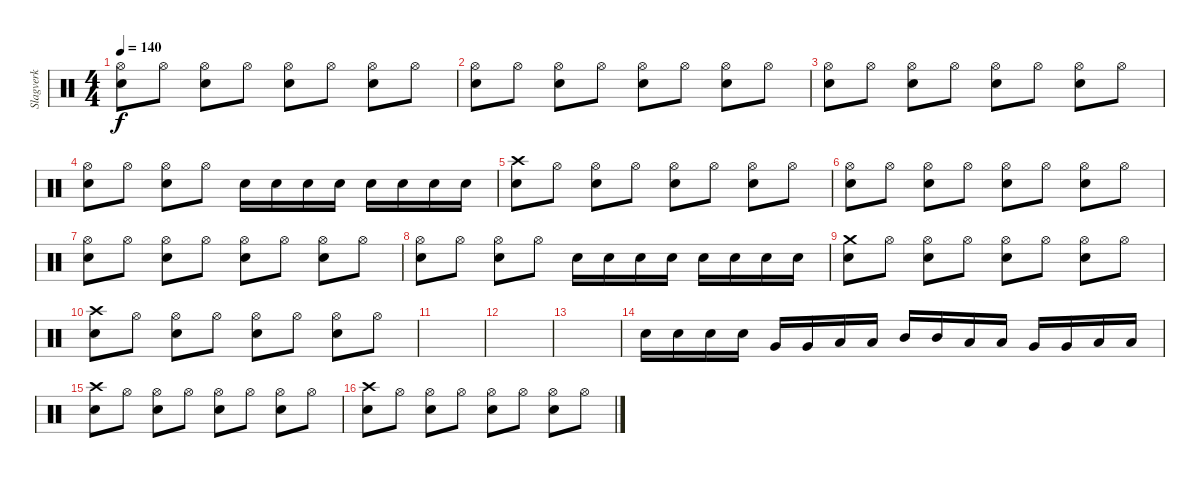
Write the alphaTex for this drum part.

\track ("Slagverk" "Slagverk") {instrument percussion}
\staff {score}
\articulation defaults
\ts (4 4)
\tempo 140
\clef neutral
\ks c
("Hi-Hat (open)" "Snare (hit) 2").8{dy f} "Hi-Hat (open)".8 ("Hi-Hat (open)" "Snare (hit) 2").8 "Hi-Hat (open)".8 ("Hi-Hat (open)" "Snare (hit) 2").8 "Hi-Hat (open)".8 ("Hi-Hat (open)" "Snare (hit) 2").8 "Hi-Hat (open)".8 |
("Hi-Hat (open)" "Snare (hit) 2").8 "Hi-Hat (open)".8 ("Hi-Hat (open)" "Snare (hit) 2").8 "Hi-Hat (open)".8 ("Hi-Hat (open)" "Snare (hit) 2").8 "Hi-Hat (open)".8 ("Hi-Hat (open)" "Snare (hit) 2").8 "Hi-Hat (open)".8 |
("Hi-Hat (open)" "Snare (hit) 2").8 "Hi-Hat (open)".8 ("Hi-Hat (open)" "Snare (hit) 2").8 "Hi-Hat (open)".8 ("Hi-Hat (open)" "Snare (hit) 2").8 "Hi-Hat (open)".8 ("Hi-Hat (open)" "Snare (hit) 2").8 "Hi-Hat (open)".8 |
("Hi-Hat (open)" "Snare (hit) 2").8 "Hi-Hat (open)".8 ("Hi-Hat (open)" "Snare (hit) 2").8 "Hi-Hat (open)".8 "Snare (hit) 2".16 "Snare (hit) 2".16 "Snare (hit) 2".16 "Snare (hit) 2".16 "Snare (hit) 2".16 "Snare (hit) 2".16 "Snare (hit) 2".16 "Snare (hit) 2".16 |
("Crash high (hit)" "Snare (hit) 2").8 "Hi-Hat (open)".8 ("Hi-Hat (open)" "Snare (hit) 2").8 "Hi-Hat (open)".8 ("Hi-Hat (open)" "Snare (hit) 2").8 "Hi-Hat (open)".8 ("Hi-Hat (open)" "Snare (hit) 2").8 "Hi-Hat (open)".8 |
("Hi-Hat (open)" "Snare (hit) 2").8 "Hi-Hat (open)".8 ("Hi-Hat (open)" "Snare (hit) 2").8 "Hi-Hat (open)".8 ("Hi-Hat (open)" "Snare (hit) 2").8 "Hi-Hat (open)".8 ("Hi-Hat (open)" "Snare (hit) 2").8 "Hi-Hat (open)".8 |
("Hi-Hat (open)" "Snare (hit) 2").8 "Hi-Hat (open)".8 ("Hi-Hat (open)" "Snare (hit) 2").8 "Hi-Hat (open)".8 ("Hi-Hat (open)" "Snare (hit) 2").8 "Hi-Hat (open)".8 ("Hi-Hat (open)" "Snare (hit) 2").8 "Hi-Hat (open)".8 |
("Hi-Hat (open)" "Snare (hit) 2").8 "Hi-Hat (open)".8 ("Hi-Hat (open)" "Snare (hit) 2").8 "Hi-Hat (open)".8 "Snare (hit) 2".16 "Snare (hit) 2".16 "Snare (hit) 2".16 "Snare (hit) 2".16 "Snare (hit) 2".16 "Snare (hit) 2".16 "Snare (hit) 2".16 "Snare (hit) 2".16 |
("Crash medium (hit)" "Snare (hit) 2").8 "Hi-Hat (open)".8 ("Hi-Hat (open)" "Snare (hit) 2").8 "Hi-Hat (open)".8 ("Hi-Hat (open)" "Snare (hit) 2").8 "Hi-Hat (open)".8 ("Hi-Hat (open)" "Snare (hit) 2").8 "Hi-Hat (open)".8 |
("Crash high (hit)" "Snare (hit) 2").8 "Hi-Hat (open)".8 ("Hi-Hat (open)" "Snare (hit) 2").8 "Hi-Hat (open)".8 ("Hi-Hat (open)" "Snare (hit) 2").8 "Hi-Hat (open)".8 ("Hi-Hat (open)" "Snare (hit) 2").8 "Hi-Hat (open)".8 |
|
|
|
"Snare (hit) 2".16 "Snare (hit) 2".16 "Snare (hit) 2".16 "Snare (hit) 2".16 "Very Low Tom (hit)".16 "Very Low Tom (hit)".16 "Low Tom (hit)".16 "Low Tom (hit)".16 "Mid Tom (hit)".16 "Mid Tom (hit)".16 "Low Tom (hit)".16 "Low Tom (hit)".16 "Very Low Tom (hit)".16 "Very Low Tom (hit)".16 "Low Floor Tom (hit)".16 "Low Floor Tom (hit)".16 |
("Crash high (hit)" "Snare (hit) 2").8 "Hi-Hat (open)".8 ("Hi-Hat (open)" "Snare (hit) 2").8 "Hi-Hat (open)".8 ("Hi-Hat (open)" "Snare (hit) 2").8 "Hi-Hat (open)".8 ("Hi-Hat (open)" "Snare (hit) 2").8 "Hi-Hat (open)".8 |
("Crash high (hit)" "Snare (hit) 2").8 "Hi-Hat (open)".8 ("Hi-Hat (open)" "Snare (hit) 2").8 "Hi-Hat (open)".8 ("Hi-Hat (open)" "Snare (hit) 2").8 "Hi-Hat (open)".8 ("Hi-Hat (open)" "Snare (hit) 2").8 "Hi-Hat (open)".8
